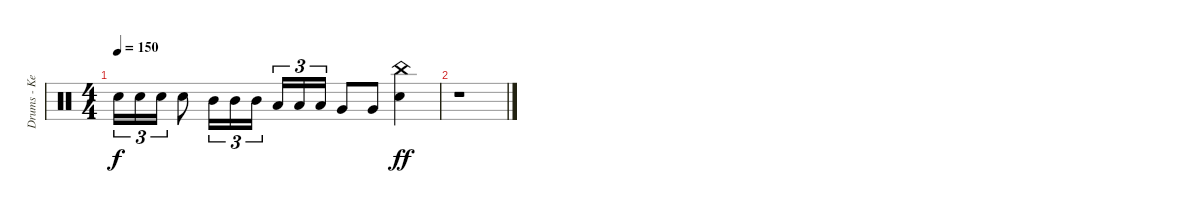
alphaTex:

\track ("Drums - Kevin" "Drums - Ke") {instrument percussion}
\staff {score}
\articulation defaults
\ts (4 4)
\tempo 150
\clef neutral
\ks c "Electric Snare (hit)".16{tu (3 2) dy f} "Electric Snare (hit)".16{tu (3 2)} "Electric Snare (hit)".16{tu (3 2)} "Electric Snare (hit)".8 "Mid Tom (hit)".16{tu (3 2)} "Mid Tom (hit)".16{tu (3 2)} "Mid Tom (hit)".16{tu (3 2)} "Low Tom (hit)".16{tu (3 2)} "Low Tom (hit)".16{tu (3 2)} "Low Tom (hit)".16{tu (3 2)} "Very Low Tom (hit)".8 "Very Low Tom (hit)".8
("China (hit)" "Electric Snare (hit)").4{dy ff} |
r.1
